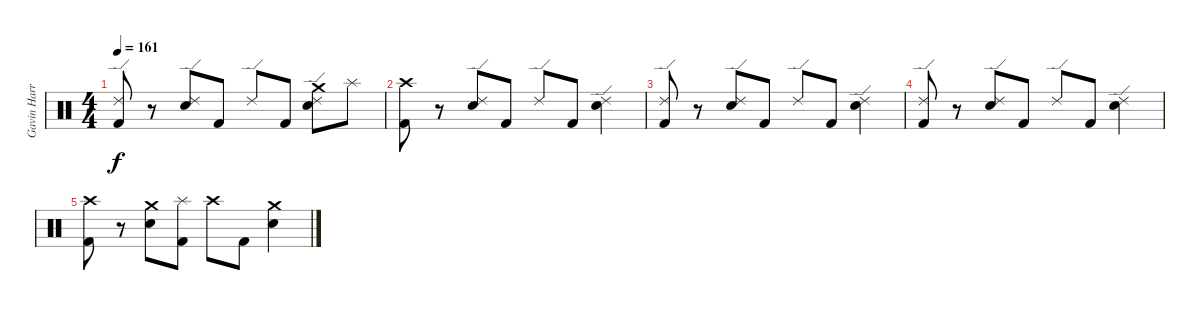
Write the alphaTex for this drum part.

\track ("Gavin Harrison (Drums)" "Gavin Harr") {instrument percussion}
\staff {score}
\articulation defaults
\ts (4 4)
\tempo 161
\clef neutral
\ks c
("Ride (edge) 2" "Kick (hit) 2").8{dy f} r.8 ("Ride (edge) 2" "Electric Snare (hit)").8 "Kick (hit) 2".8 "Ride (edge) 2".8 "Kick (hit) 2".8 ("Crash medium (hit)" "Ride (edge) 2" "Electric Snare (hit)").8 "Splash (hit)".8 |
("Crash high (hit)" "Kick (hit) 2").8 r.8 ("Ride (edge) 2" "Electric Snare (hit)").8 "Kick (hit) 2".8 "Ride (edge) 2".8 "Kick (hit) 2".8 ("Ride (edge) 2" "Electric Snare (hit)").4 |
("Ride (edge) 2" "Kick (hit) 2").8 r.8 ("Ride (edge) 2" "Electric Snare (hit)").8 "Kick (hit) 2".8 "Ride (edge) 2".8 "Kick (hit) 2".8 ("Ride (edge) 2" "Electric Snare (hit)").4 |
("Ride (edge) 2" "Kick (hit) 2").8 r.8 ("Ride (edge) 2" "Electric Snare (hit)").8 "Kick (hit) 2".8 "Ride (edge) 2".8 "Kick (hit) 2".8 ("Ride (edge) 2" "Electric Snare (hit)").4 |
("Crash high (hit)" "Kick (hit) 2").8 r.8 ("Crash medium (hit)" "Electric Snare (hit)").8 ("Splash (hit)" "Kick (hit) 2").8 "Crash high (hit)".8 "Kick (hit) 2".8 ("Crash medium (hit)" "Electric Snare (hit)").4
